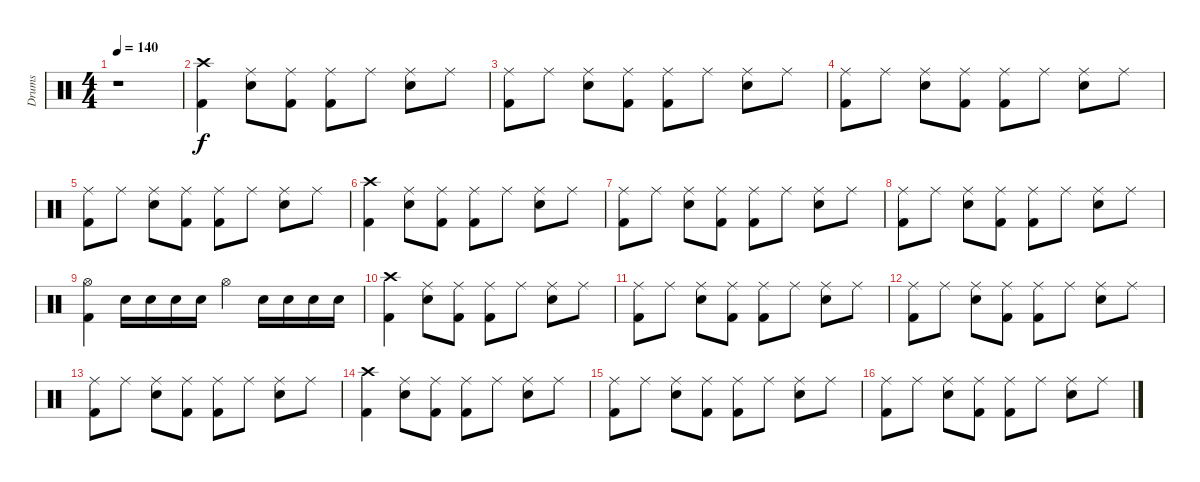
\track ("Drums" "Drums") {instrument percussion}
\staff {score}
\articulation defaults
\ts (4 4)
\tempo 140
\clef neutral
\ks c
r.1{dy f} |
("Crash high (hit)" "Kick (hit) 2").4 ("Ride (middle)" "Electric Snare (hit)").8 ("Ride (middle)" "Kick (hit) 2").8 ("Ride (middle)" "Kick (hit) 2").8 "Ride (middle)".8 ("Ride (middle)" "Electric Snare (hit)").8 "Ride (middle)".8 |
("Ride (middle)" "Kick (hit) 2").8 "Ride (middle)".8 ("Ride (middle)" "Electric Snare (hit)").8 ("Ride (middle)" "Kick (hit) 2").8 ("Ride (middle)" "Kick (hit) 2").8 "Ride (middle)".8 ("Ride (middle)" "Electric Snare (hit)").8 "Ride (middle)".8 |
("Ride (middle)" "Kick (hit) 2").8 "Ride (middle)".8 ("Ride (middle)" "Electric Snare (hit)").8 ("Ride (middle)" "Kick (hit) 2").8 ("Ride (middle)" "Kick (hit) 2").8 "Ride (middle)".8 ("Ride (middle)" "Electric Snare (hit)").8 "Ride (middle)".8 |
("Ride (middle)" "Kick (hit) 2").8 "Ride (middle)".8 ("Ride (middle)" "Electric Snare (hit)").8 ("Ride (middle)" "Kick (hit) 2").8 ("Ride (middle)" "Kick (hit) 2").8 "Ride (middle)".8 ("Ride (middle)" "Electric Snare (hit)").8 "Ride (middle)".8 |
("Crash high (hit)" "Kick (hit) 2").4 ("Ride (middle)" "Electric Snare (hit)").8 ("Ride (middle)" "Kick (hit) 2").8 ("Ride (middle)" "Kick (hit) 2").8 "Ride (middle)".8 ("Ride (middle)" "Electric Snare (hit)").8 "Ride (middle)".8 |
("Ride (middle)" "Kick (hit) 2").8 "Ride (middle)".8 ("Ride (middle)" "Electric Snare (hit)").8 ("Ride (middle)" "Kick (hit) 2").8 ("Ride (middle)" "Kick (hit) 2").8 "Ride (middle)".8 ("Ride (middle)" "Electric Snare (hit)").8 "Ride (middle)".8 |
("Ride (middle)" "Kick (hit) 2").8 "Ride (middle)".8 ("Ride (middle)" "Electric Snare (hit)").8 ("Ride (middle)" "Kick (hit) 2").8 ("Ride (middle)" "Kick (hit) 2").8 "Ride (middle)".8 ("Ride (middle)" "Electric Snare (hit)").8 "Ride (middle)".8 |
("Hi-Hat (open)" "Kick (hit) 2").4 "Electric Snare (hit)".16 "Electric Snare (hit)".16 "Electric Snare (hit)".16 "Electric Snare (hit)".16 "Hi-Hat (open)".4 "Electric Snare (hit)".16 "Electric Snare (hit)".16 "Electric Snare (hit)".16 "Electric Snare (hit)".16 |
("Crash high (hit)" "Kick (hit) 2").4 ("Ride (middle)" "Electric Snare (hit)").8 ("Ride (middle)" "Kick (hit) 2").8 ("Ride (middle)" "Kick (hit) 2").8 "Ride (middle)".8 ("Ride (middle)" "Electric Snare (hit)").8 "Ride (middle)".8 |
("Ride (middle)" "Kick (hit) 2").8 "Ride (middle)".8 ("Ride (middle)" "Electric Snare (hit)").8 ("Ride (middle)" "Kick (hit) 2").8 ("Ride (middle)" "Kick (hit) 2").8 "Ride (middle)".8 ("Ride (middle)" "Electric Snare (hit)").8 "Ride (middle)".8 |
("Ride (middle)" "Kick (hit) 2").8 "Ride (middle)".8 ("Ride (middle)" "Electric Snare (hit)").8 ("Ride (middle)" "Kick (hit) 2").8 ("Ride (middle)" "Kick (hit) 2").8 "Ride (middle)".8 ("Ride (middle)" "Electric Snare (hit)").8 "Ride (middle)".8 |
("Ride (middle)" "Kick (hit) 2").8 "Ride (middle)".8 ("Ride (middle)" "Electric Snare (hit)").8 ("Ride (middle)" "Kick (hit) 2").8 ("Ride (middle)" "Kick (hit) 2").8 "Ride (middle)".8 ("Ride (middle)" "Electric Snare (hit)").8 "Ride (middle)".8 |
("Crash high (hit)" "Kick (hit) 2").4 ("Ride (middle)" "Electric Snare (hit)").8 ("Ride (middle)" "Kick (hit) 2").8 ("Ride (middle)" "Kick (hit) 2").8 "Ride (middle)".8 ("Ride (middle)" "Electric Snare (hit)").8 "Ride (middle)".8 |
("Ride (middle)" "Kick (hit) 2").8 "Ride (middle)".8 ("Ride (middle)" "Electric Snare (hit)").8 ("Ride (middle)" "Kick (hit) 2").8 ("Ride (middle)" "Kick (hit) 2").8 "Ride (middle)".8 ("Ride (middle)" "Electric Snare (hit)").8 "Ride (middle)".8 |
("Ride (middle)" "Kick (hit) 2").8 "Ride (middle)".8 ("Ride (middle)" "Electric Snare (hit)").8 ("Ride (middle)" "Kick (hit) 2").8 ("Ride (middle)" "Kick (hit) 2").8 "Ride (middle)".8 ("Ride (middle)" "Electric Snare (hit)").8 "Ride (middle)".8
